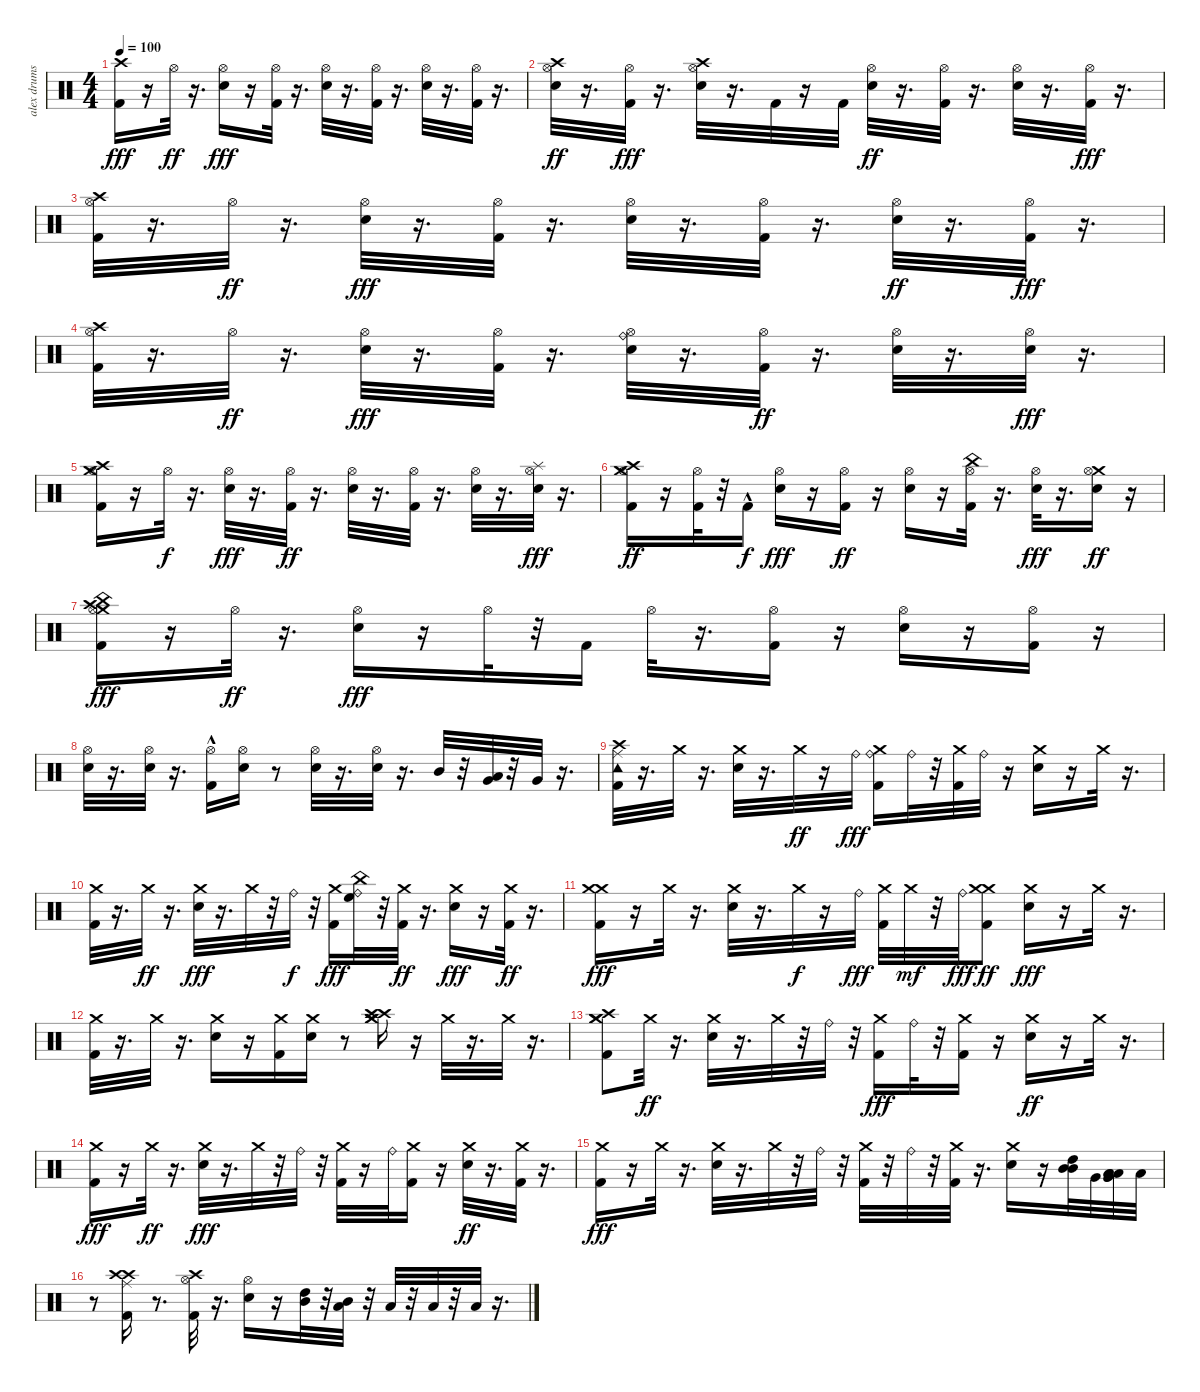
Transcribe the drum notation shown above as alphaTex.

\track ("alex drums" "alex drums") {instrument percussion}
\staff {score}
\articulation defaults
\ts (4 4)
\tempo 100
\clef neutral
\ks c
("Crash high (hit)" "Kick (hit) 2").16{dy fff} r.16 "Hi-Hat (open)".32{dy ff} r.16{d} ("Electric Snare (hit)" "Hi-Hat (open)").16{dy fff} r.16 ("Hi-Hat (open)" "Kick (hit) 2").32 r.16{d} ("Electric Snare (hit)" "Hi-Hat (open)").32 r.16{d} ("Kick (hit) 2" "Hi-Hat (open)").32 r.16{d} ("Electric Snare (hit)" "Hi-Hat (open)").32 r.16{d} ("Hi-Hat (open)" "Kick (hit) 2").32 r.16{d} |
("Electric Snare (hit)" "Hi-Hat (open)" "Crash high (hit)").32{dy ff} r.16{d} ("Kick (hit) 2" "Hi-Hat (open)").32{dy fff} r.16{d} ("Crash high (hit)" "Electric Snare (hit)" "Hi-Hat (open)").32 r.16{d} "Kick (hit) 2".32 r.16 "Kick (hit) 2".32 ("Electric Snare (hit)" "Hi-Hat (open)").32{dy ff} r.16{d} ("Hi-Hat (open)" "Kick (hit) 2").32 r.16{d} ("Hi-Hat (open)" "Electric Snare (hit)").32 r.16{d} ("Hi-Hat (open)" "Kick (hit) 2").32{dy fff} r.16{d} |
("Kick (hit) 2" "Hi-Hat (open)" "Crash high (hit)").32 r.16{d} "Hi-Hat (open)".32{dy ff} r.16{d} ("Hi-Hat (open)" "Electric Snare (hit)").32{dy fff} r.16{d} ("Hi-Hat (open)" "Kick (hit) 2").32 r.16{d} ("Electric Snare (hit)" "Hi-Hat (open)").32 r.16{d} ("Hi-Hat (open)" "Kick (hit) 2").32 r.16{d} ("Hi-Hat (open)" "Electric Snare (hit)").32{dy ff} r.16{d} ("Kick (hit) 2" "Hi-Hat (open)").32{dy fff} r.16{d} |
("Hi-Hat (open)" "Kick (hit) 2" "Crash high (hit)").32 r.16{d} "Hi-Hat (open)".32{dy ff} r.16{d} ("Hi-Hat (open)" "Electric Snare (hit)").32{dy fff} r.16{d} ("Hi-Hat (open)" "Kick (hit) 2").32 r.16{d} ("Ride (bell)" "Hi-Hat (open)" "Electric Snare (hit)").32 r.16{d} ("Hi-Hat (open)" "Kick (hit) 2").32{dy ff} r.16{d} ("Hi-Hat (open)" "Electric Snare (hit)").32 r.16{d} ("Hi-Hat (open)" "Electric Snare (hit)").32{dy fff} r.16{d} |
("Crash medium (hit)" "Crash high (hit)" "Hi-Hat (open)" "Kick (hit) 2").16 r.16 "Hi-Hat (open)".32{dy f} r.16{d} ("Electric Snare (hit)" "Hi-Hat (open)").32{dy fff} r.16{d} ("Hi-Hat (open)" "Kick (hit) 2").32{dy ff} r.16{d} ("Hi-Hat (open)" "Electric Snare (hit)").32 r.16{d} ("Hi-Hat (open)" "Kick (hit) 2").32 r.16{d} ("Hi-Hat (open)" "Electric Snare (hit)").32 r.16{d} ("Splash (hit)" "Hi-Hat (open)" "Electric Snare (hit)").32{dy fff} r.16{d} |
("Crash medium (hit)" "Hi-Hat (open)" "Crash high (hit)" "Kick (hit) 2").16{dy ff} r.16 ("Hi-Hat (open)" "Kick (hit) 2").32 r.32 "Kick (hit) 2"{hac}.16{dy f} ("Hi-Hat (open)" "Electric Snare (hit)").16{dy fff} r.16 ("Hi-Hat (open)" "Kick (hit) 2").16{dy ff} r.16 ("Hi-Hat (open)" "Electric Snare (hit)").16 r.16 ("China (hit)" "Hi-Hat (open)" "Kick (hit) 2").32 r.16{d} ("Electric Snare (hit)" "Hi-Hat (open)").32{dy fff} r.16{d} ("Crash medium (hit)" "Hi-Hat (open)" "Electric Snare (hit)").16{dy ff} r.16 |
("Crash medium (hit)" "Hi-Hat (open)" "Crash high (hit)" "Kick (hit) 2" "China (hit)").16{dy fff} r.16 "Hi-Hat (open)".32{dy ff} r.16{d} ("Hi-Hat (open)" "Electric Snare (hit)").16{dy fff} r.16 "Hi-Hat (open)".32 r.32 "Kick (hit) 2".16 "Hi-Hat (open)".32 r.16{d} ("Hi-Hat (open)" "Kick (hit) 2").16 r.16 ("Hi-Hat (open)" "Electric Snare (hit)").16 r.16 ("Kick (hit) 2" "Hi-Hat (open)").16 r.16 |
("Hi-Hat (open)" "Electric Snare (hit)").32 r.16{d} ("Hi-Hat (open)" "Electric Snare (hit)").32 r.16{d} ("Hi-Hat (open)" "Kick (hit) 2"{hac}).16 ("Hi-Hat (open)" "Electric Snare (hit)").16 r.8 ("Hi-Hat (open)" "Electric Snare (hit)").32 r.16{d} ("Hi-Hat (open)" "Electric Snare (hit)").32 r.16{d} "Mid Tom (hit)".32 r.32 ("Low Tom (hit)" "Very Low Tom (hit)").32 r.32 "Very Low Tom (hit)".32 r.16{d} |
("Tambourine (hit)" "Ride (middle)" "Crash high (hit)" "Kick (hit) 2").32 r.16{d} "Crash medium (hit)".32 r.16{d} ("Crash medium (hit)" "Electric Snare (hit)").32 r.16{d} "Crash medium (hit)".32{dy ff} r.16 "Ride (bell)".32{dy fff} ("Kick (hit) 2" "Crash medium (hit)" "Ride (bell)").16 "Ride (bell)".32 r.32 ("Crash medium (hit)" "Kick (hit) 2").32 "Ride (bell)".32 r.16 ("Electric Snare (hit)" "Crash medium (hit)").16 r.16 "Crash medium (hit)".32 r.16{d} |
("Crash medium (hit)" "Kick (hit) 2").32 r.16{d} "Crash medium (hit)".32{dy ff} r.16{d} ("Crash medium (hit)" "Electric Snare (hit)").32{dy fff} r.16{d} "Crash medium (hit)".32 r.32 "Ride (bell)".32{dy f} r.32 ("Kick (hit) 2" "Crash medium (hit)").16{dy fff} ("High Floor Tom (hit)" "Ride (bell)" "China (hit)").32 r.32 ("Kick (hit) 2" "Crash medium (hit)").32{dy ff} r.16{d} ("Electric Snare (hit)" "Crash medium (hit)").16{dy fff} r.16 ("Crash medium (hit)" "Kick (hit) 2").32{dy ff} r.16{d} |
("Crash medium (hit)" "Crash medium (hit)" "Kick (hit) 2").16{dy fff} r.16 "Crash medium (hit)".32 r.16{d} ("Crash medium (hit)" "Electric Snare (hit)").32 r.16{d} "Crash medium (hit)".32{dy f} r.16 "Ride (bell)".32{dy fff} ("Crash medium (hit)" "Kick (hit) 2").32 "Crash medium (hit)".32{dy mf} r.32 "Ride (bell)".32{dy fff} ("Kick (hit) 2" "Crash medium (hit)" "Crash medium (hit)").8{dy ff} ("Crash medium (hit)" "Electric Snare (hit)").16{dy fff} r.16 "Crash medium (hit)".32 r.16{d} |
("Crash medium (hit)" "Kick (hit) 2").32 r.16{d} "Crash medium (hit)".32 r.16{d} ("Crash medium (hit)" "Electric Snare (hit)").16 r.16 ("Crash medium (hit)" "Kick (hit) 2").16 ("Crash medium (hit)" "Electric Snare (hit)").16 r.8 ("Crash high (hit)" "Crash medium (hit)" "Crash high (hit)" "Crash medium (hit)").16 r.16 "Crash medium (hit)".32 r.16{d} "Crash medium (hit)".32 r.16{d} |
("Crash high (hit)" "Crash medium (hit)" "Crash medium (hit)" "Kick (hit) 2").8 "Crash medium (hit)".32{dy ff} r.16{d} ("Crash medium (hit)" "Electric Snare (hit)").32 r.16{d} "Crash medium (hit)".32 r.32 "Ride (bell)".32 r.32 ("Crash medium (hit)" "Kick (hit) 2").16{dy fff} "Ride (bell)".32 r.32 ("Crash medium (hit)" "Kick (hit) 2").16 r.16 ("Crash medium (hit)" "Electric Snare (hit)").16{dy ff} r.16 "Crash medium (hit)".32 r.16{d} |
("Kick (hit) 2" "Crash medium (hit)").16{dy fff} r.16 "Crash medium (hit)".32{dy ff} r.16{d} ("Crash medium (hit)" "Electric Snare (hit)").32{dy fff} r.16{d} "Crash medium (hit)".32 r.32 "Ride (bell)".32 r.32 ("Crash medium (hit)" "Kick (hit) 2").32 r.16 "Ride (bell)".32 ("Crash medium (hit)" "Kick (hit) 2").16 r.16 ("Crash medium (hit)" "Electric Snare (hit)").32{dy ff} r.16{d} ("Kick (hit) 2" "Crash medium (hit)").32 r.16{d} |
("Kick (hit) 2" "Crash medium (hit)").16{dy fff} r.16 "Crash medium (hit)".32 r.16{d} ("Crash medium (hit)" "Electric Snare (hit)").32 r.16{d} "Crash medium (hit)".32 r.32 "Ride (bell)".32 r.32 ("Crash medium (hit)" "Kick (hit) 2").32 r.32 "Ride (bell)".32 r.32 ("Kick (hit) 2" "Crash medium (hit)").32 r.16{d} ("Crash medium (hit)" "Electric Snare (hit)").16 r.16 ("Mid Tom (hit)" "Mid Tom (hit)" "High Tom (hit)").32 "Very Low Tom (hit)".32 ("Low Tom (hit)" "Very Low Tom (hit)" "Very Low Tom (hit)" "Low Floor Tom (hit)" "Low Tom (hit)").32 "Low Floor Tom (hit)".32 |
r.8 ("Crash high (hit)" "Ride (middle)" "Crash high (hit)" "Kick (hit) 2").16 r.8{d} ("Hi-Hat (open)" "Crash high (hit)" "Kick (hit) 2").32 r.16{d} ("Hi-Hat (open)" "Electric Snare (hit)").16 r.16 ("High Tom (hit)" "Mid Tom (hit)").32 r.32 ("Low Tom (hit)" "Mid Tom (hit)").32 r.32 "Low Tom (hit)".32 r.32 "Low Floor Tom (hit)".32 r.32 "Low Floor Tom (hit)".32 r.16{d}
